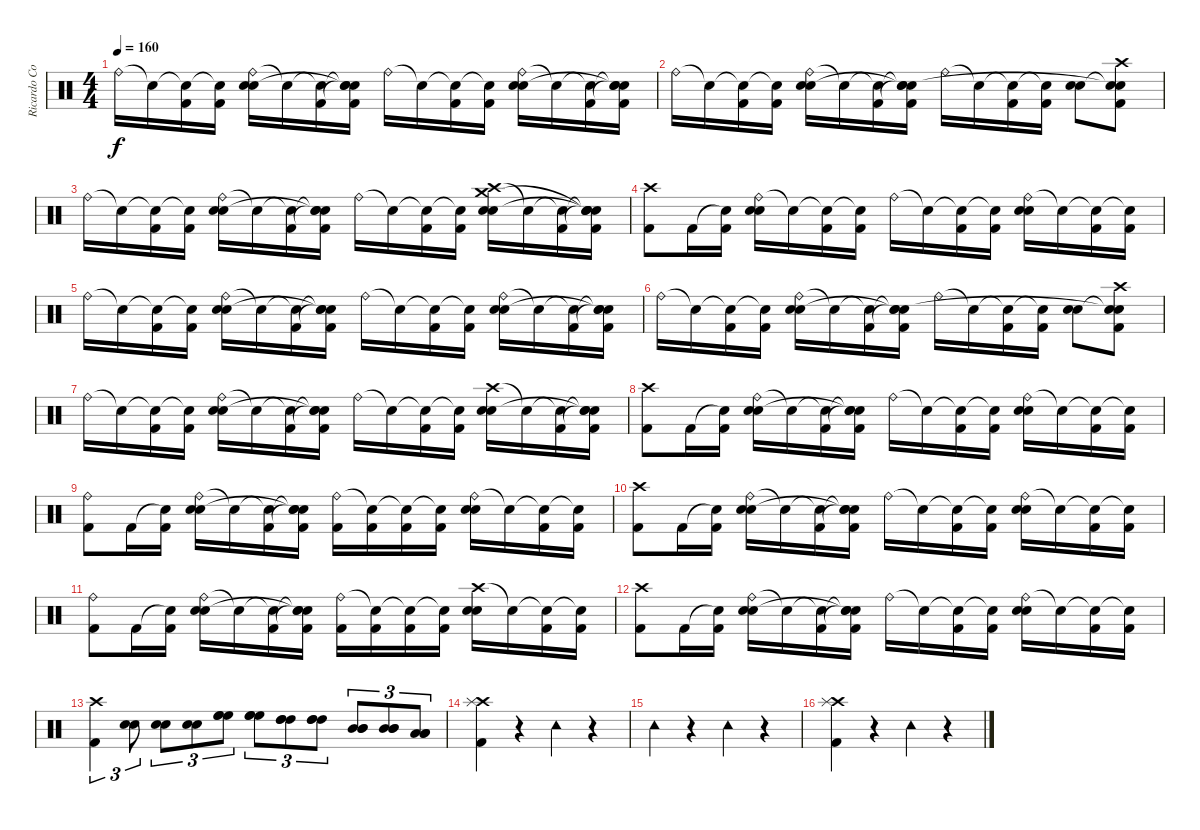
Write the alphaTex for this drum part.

\track ("Ricardo Confessori" "Ricardo Co") {instrument percussion}
\staff {score}
\articulation defaults
\ts (4 4)
\tempo 160
\clef neutral
\ks c "Ride (bell)".16{dy f} "Snare (hit)"{t}.16
("Snare (hit)"{t} "Kick (hit) 2").16 ("Snare (hit)"{t} "Kick (hit) 2").16 ("Ride (bell)" "Electric Snare (hit)" "Snare (hit) 2").16 "Snare (hit)"{t}.16 ("Snare (hit)"{t} "Kick (hit) 2").16 ("Snare (hit)"{t} "Snare (hit)"{t} "Snare (hit)"{t} "Kick (hit) 2").16 "Ride (bell)".16 "Snare (hit)"{t}.16 ("Snare (hit)"{t} "Kick (hit) 2").16 ("Snare (hit)"{t} "Kick (hit) 2").16 ("Ride (bell)" "Electric Snare (hit)" "Snare (hit) 2").16 "Snare (hit)"{t}.16 ("Snare (hit)"{t} "Kick (hit) 2").16 ("Snare (hit)"{t} "Snare (hit)"{t} "Snare (hit)"{t} "Kick (hit) 2").16 |
"Ride (bell)".16 "Snare (hit)"{t}.16 ("Snare (hit)"{t} "Kick (hit) 2").16 ("Snare (hit)"{t} "Kick (hit) 2").16 ("Ride (bell)" "Electric Snare (hit)" "Snare (hit) 2").16 "Snare (hit)"{t}.16 ("Snare (hit)"{t} "Kick (hit) 2").16 ("Snare (hit)"{t} "Snare (hit)"{t} "Snare (hit)"{t} "Kick (hit) 2").16 "Ride (bell)".16 "Snare (hit)"{t}.16 ("Snare (hit)"{t} "Kick (hit) 2").16 ("Snare (hit)"{t} "Kick (hit) 2").16 ("Electric Snare (hit)" "Snare (hit) 2").8 ("Crash high (hit)" "Snare (hit)"{t} "Snare (hit)"{t} "Kick (hit) 2").8 |
"Ride (bell)".16 "Snare (hit)"{t}.16 ("Snare (hit)"{t} "Kick (hit) 2").16 ("Snare (hit)"{t} "Kick (hit) 2").16 ("Ride (bell)" "Electric Snare (hit)" "Snare (hit) 2").16 "Snare (hit)"{t}.16 ("Snare (hit)"{t} "Kick (hit) 2").16 ("Snare (hit)"{t} "Snare (hit)"{t} "Snare (hit)"{t} "Kick (hit) 2").16 "Ride (bell)".16 "Snare (hit)"{t}.16 ("Snare (hit)"{t} "Kick (hit) 2").16 ("Snare (hit)"{t} "Kick (hit) 2").16 ("Crash high (hit)" "Electric Snare (hit)" "Snare (hit) 2" "Crash medium (hit)").16 "Snare (hit)"{t}.16 ("Snare (hit)"{t} "Kick (hit) 2").16 ("Snare (hit)"{t} "Snare (hit)"{t} "Snare (hit)"{t} "Snare (hit)"{t} "Kick (hit) 2").16 |
("Crash high (hit)" "Kick (hit) 2").8 "Kick (hit) 2".16 ("Snare (hit)"{t} "Kick (hit) 2").16 ("Ride (bell)" "Electric Snare (hit)" "Snare (hit) 2").16 "Snare (hit)"{t}.16 ("Snare (hit)"{t} "Kick (hit) 2").16 ("Snare (hit)"{t} "Kick (hit) 2").16 "Ride (bell)".16 "Snare (hit)"{t}.16 ("Snare (hit)"{t} "Kick (hit) 2").16 ("Snare (hit)"{t} "Kick (hit) 2").16 ("Ride (bell)" "Electric Snare (hit)" "Snare (hit) 2").16 "Snare (hit)"{t}.16 ("Snare (hit)"{t} "Kick (hit) 2").16 ("Snare (hit)"{t} "Kick (hit) 2").16 |
"Ride (bell)".16 "Snare (hit)"{t}.16 ("Snare (hit)"{t} "Kick (hit) 2").16 ("Snare (hit)"{t} "Kick (hit) 2").16 ("Ride (bell)" "Electric Snare (hit)" "Snare (hit) 2").16 "Snare (hit)"{t}.16 ("Snare (hit)"{t} "Kick (hit) 2").16 ("Snare (hit)"{t} "Snare (hit)"{t} "Snare (hit)"{t} "Kick (hit) 2").16 "Ride (bell)".16 "Snare (hit)"{t}.16 ("Snare (hit)"{t} "Kick (hit) 2").16 ("Snare (hit)"{t} "Kick (hit) 2").16 ("Ride (bell)" "Electric Snare (hit)" "Snare (hit) 2").16 "Snare (hit)"{t}.16 ("Snare (hit)"{t} "Kick (hit) 2").16 ("Snare (hit)"{t} "Snare (hit)"{t} "Snare (hit)"{t} "Kick (hit) 2").16 |
"Ride (bell)".16 "Snare (hit)"{t}.16 ("Snare (hit)"{t} "Kick (hit) 2").16 ("Snare (hit)"{t} "Kick (hit) 2").16 ("Ride (bell)" "Electric Snare (hit)" "Snare (hit) 2").16 "Snare (hit)"{t}.16 ("Snare (hit)"{t} "Kick (hit) 2").16 ("Snare (hit)"{t} "Snare (hit)"{t} "Snare (hit)"{t} "Kick (hit) 2").16 "Ride (bell)".16 "Snare (hit)"{t}.16 ("Snare (hit)"{t} "Kick (hit) 2").16 ("Snare (hit)"{t} "Kick (hit) 2").16 ("Electric Snare (hit)" "Snare (hit) 2").8 ("Crash high (hit)" "Snare (hit)"{t} "Snare (hit)"{t} "Kick (hit) 2").8 |
"Ride (bell)".16 "Snare (hit)"{t}.16 ("Snare (hit)"{t} "Kick (hit) 2").16 ("Snare (hit)"{t} "Kick (hit) 2").16 ("Ride (bell)" "Electric Snare (hit)" "Snare (hit) 2").16 "Snare (hit)"{t}.16 ("Snare (hit)"{t} "Kick (hit) 2").16 ("Snare (hit)"{t} "Snare (hit)"{t} "Snare (hit)"{t} "Kick (hit) 2").16 "Ride (bell)".16 "Snare (hit)"{t}.16 ("Snare (hit)"{t} "Kick (hit) 2").16 ("Snare (hit)"{t} "Kick (hit) 2").16 ("Crash high (hit)" "Electric Snare (hit)" "Snare (hit) 2").16 "Snare (hit)"{t}.16 ("Snare (hit)"{t} "Kick (hit) 2").16 ("Snare (hit)"{t} "Snare (hit)"{t} "Snare (hit)"{t} "Kick (hit) 2").16 |
("Crash high (hit)" "Kick (hit) 2").8 "Kick (hit) 2".16 ("Snare (hit)"{t} "Kick (hit) 2").16 ("Ride (bell)" "Electric Snare (hit)" "Snare (hit) 2").16 "Snare (hit)"{t}.16 ("Snare (hit)"{t} "Kick (hit) 2").16 ("Snare (hit)"{t} "Snare (hit)"{t} "Snare (hit)"{t} "Kick (hit) 2").16 "Ride (bell)".16 "Snare (hit)"{t}.16 ("Snare (hit)"{t} "Kick (hit) 2").16 ("Snare (hit)"{t} "Kick (hit) 2").16 ("Ride (bell)" "Electric Snare (hit)" "Snare (hit) 2").16 "Snare (hit)"{t}.16 ("Snare (hit)"{t} "Kick (hit) 2").16 ("Snare (hit)"{t} "Kick (hit) 2").16 |
("Ride (bell)" "Kick (hit) 2").8 "Kick (hit) 2".16 ("Snare (hit)"{t} "Kick (hit) 2").16 ("Ride (bell)" "Electric Snare (hit)" "Snare (hit) 2").16 "Snare (hit)"{t}.16 ("Snare (hit)"{t} "Kick (hit) 2").16 ("Snare (hit)"{t} "Snare (hit)"{t} "Snare (hit)"{t} "Kick (hit) 2").16 ("Ride (bell)" "Kick (hit) 2").16 ("Snare (hit)"{t} "Kick (hit) 2").16 ("Snare (hit)"{t} "Kick (hit) 2").16 ("Snare (hit)"{t} "Kick (hit) 2").16 ("Ride (bell)" "Electric Snare (hit)" "Snare (hit) 2").16 "Snare (hit)"{t}.16 ("Snare (hit)"{t} "Kick (hit) 2").16 ("Snare (hit)"{t} "Kick (hit) 2").16 |
("Crash high (hit)" "Kick (hit) 2").8 "Kick (hit) 2".16 ("Snare (hit)"{t} "Kick (hit) 2").16 ("Ride (bell)" "Electric Snare (hit)" "Snare (hit) 2").16 "Snare (hit)"{t}.16 ("Snare (hit)"{t} "Kick (hit) 2").16 ("Snare (hit)"{t} "Snare (hit)"{t} "Snare (hit)"{t} "Kick (hit) 2").16 "Ride (bell)".16 "Snare (hit)"{t}.16 ("Snare (hit)"{t} "Kick (hit) 2").16 ("Snare (hit)"{t} "Kick (hit) 2").16 ("Ride (bell)" "Electric Snare (hit)" "Snare (hit) 2").16 "Snare (hit)"{t}.16 ("Snare (hit)"{t} "Kick (hit) 2").16 ("Snare (hit)"{t} "Kick (hit) 2").16 |
("Ride (bell)" "Kick (hit) 2").8 "Kick (hit) 2".16 ("Snare (hit)"{t} "Kick (hit) 2").16 ("Ride (bell)" "Electric Snare (hit)" "Snare (hit) 2").16 "Snare (hit)"{t}.16 ("Snare (hit)"{t} "Kick (hit) 2").16 ("Snare (hit)"{t} "Snare (hit)"{t} "Snare (hit)"{t} "Kick (hit) 2").16 ("Ride (bell)" "Kick (hit) 2").16 ("Snare (hit)"{t} "Kick (hit) 2").16 ("Snare (hit)"{t} "Kick (hit) 2").16 ("Snare (hit)"{t} "Kick (hit) 2").16 ("Crash high (hit)" "Electric Snare (hit)" "Snare (hit) 2").16 "Snare (hit)"{t}.16 ("Snare (hit)"{t} "Kick (hit) 2").16 ("Snare (hit)"{t} "Kick (hit) 2").16 |
("Crash high (hit)" "Kick (hit) 2").8 "Kick (hit) 2".16 ("Snare (hit)"{t} "Kick (hit) 2").16 ("Ride (bell)" "Electric Snare (hit)" "Snare (hit) 2").16 "Snare (hit)"{t}.16 ("Snare (hit)"{t} "Kick (hit) 2").16 ("Snare (hit)"{t} "Snare (hit)"{t} "Snare (hit)"{t} "Kick (hit) 2").16 "Ride (bell)".16 "Snare (hit)"{t}.16 ("Snare (hit)"{t} "Kick (hit) 2").16 ("Snare (hit)"{t} "Kick (hit) 2").16 ("Ride (bell)" "Electric Snare (hit)" "Snare (hit) 2").16 "Snare (hit)"{t}.16 ("Snare (hit)"{t} "Kick (hit) 2").16 ("Snare (hit)"{t} "Kick (hit) 2").16 |
("Crash high (hit)" "Kick (hit) 2").4{tu (3 2)} ("Electric Snare (hit)" "Snare (hit) 2").8{tu (3 2)} ("Electric Snare (hit)" "Snare (hit) 2").8{tu (3 2)} ("Electric Snare (hit)" "Snare (hit) 2").8{tu (3 2)} ("High Floor Tom (hit)" "High Floor Tom (hit)" "High Floor Tom (hit)").8{tu (3 2)} ("High Floor Tom (hit)" "High Floor Tom (hit)" "High Floor Tom (hit)").8{tu (3 2)} ("High Tom (hit)" "High Tom (hit)" "High Tom (hit)").8{tu (3 2)} ("High Tom (hit)" "High Tom (hit)" "High Tom (hit)").8{tu (3 2)} ("Mid Tom (hit)" "Mid Tom (hit)" "Mid Tom (hit)").8{tu (3 2)} ("Mid Tom (hit)" "Mid Tom (hit)" "Mid Tom (hit)").8{tu (3 2)} ("Low Tom (hit)" "Low Tom (hit)" "Low Tom (hit)").8{tu (3 2)} |
("Crash high (hit)" "Splash (hit)" "Kick (hit) 2").4 r.4 "Tambourine (hit)".4 r.4 |
"Tambourine (hit)".4 r.4 "Tambourine (hit)".4 r.4 |
("Crash high (hit)" "Splash (hit)" "Kick (hit) 2").4 r.4 "Tambourine (hit)".4 r.4
